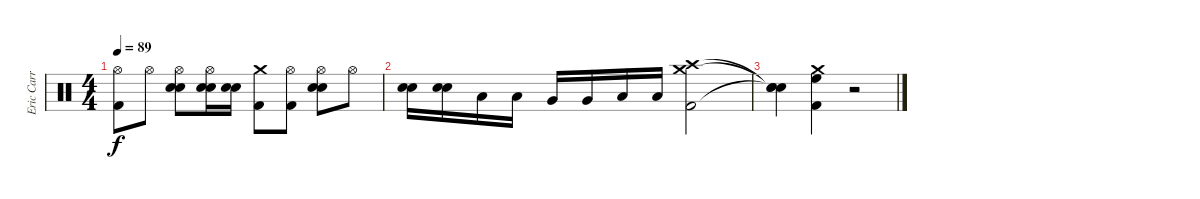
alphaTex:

\track ("Eric Carr (The Fox)" "Eric Carr ") {instrument percussion}
\staff {score}
\articulation defaults
\ts (4 4)
\tempo 89
\clef neutral
\ks c
("Kick (hit) 2" "Hi-Hat (open)").8{dy f} "Hi-Hat (open)".8 ("Electric Snare (hit)" "Snare (hit) 2" "Hi-Hat (open)").8 ("Electric Snare (hit)" "Snare (hit) 2" "Hi-Hat (open)").16 ("Electric Snare (hit)" "Snare (hit) 2").16 ("Crash medium (hit)" "Kick (hit) 2").8 ("Kick (hit) 2" "Hi-Hat (open)").8 ("Electric Snare (hit)" "Snare (hit) 2" "Hi-Hat (open)").8 "Hi-Hat (open)".8 |
("Electric Snare (hit)" "Snare (hit) 2").16 ("Electric Snare (hit)" "Snare (hit) 2").16 "Low Tom (hit)".16 "Low Tom (hit)".16 "Very Low Tom (hit)".16 "Very Low Tom (hit)".16 "Low Floor Tom (hit)".16 "Low Floor Tom (hit)".16 ("Crash medium (hit)" "Crash high (hit)" "Kick (hit) 2").2 |
("Snare (hit)"{t} "Snare (hit)"{t} "Snare (hit)"{t}).4 ("Crash medium (hit)" "High Floor Tom (hit)" "Kick (hit) 2").4 r.2
